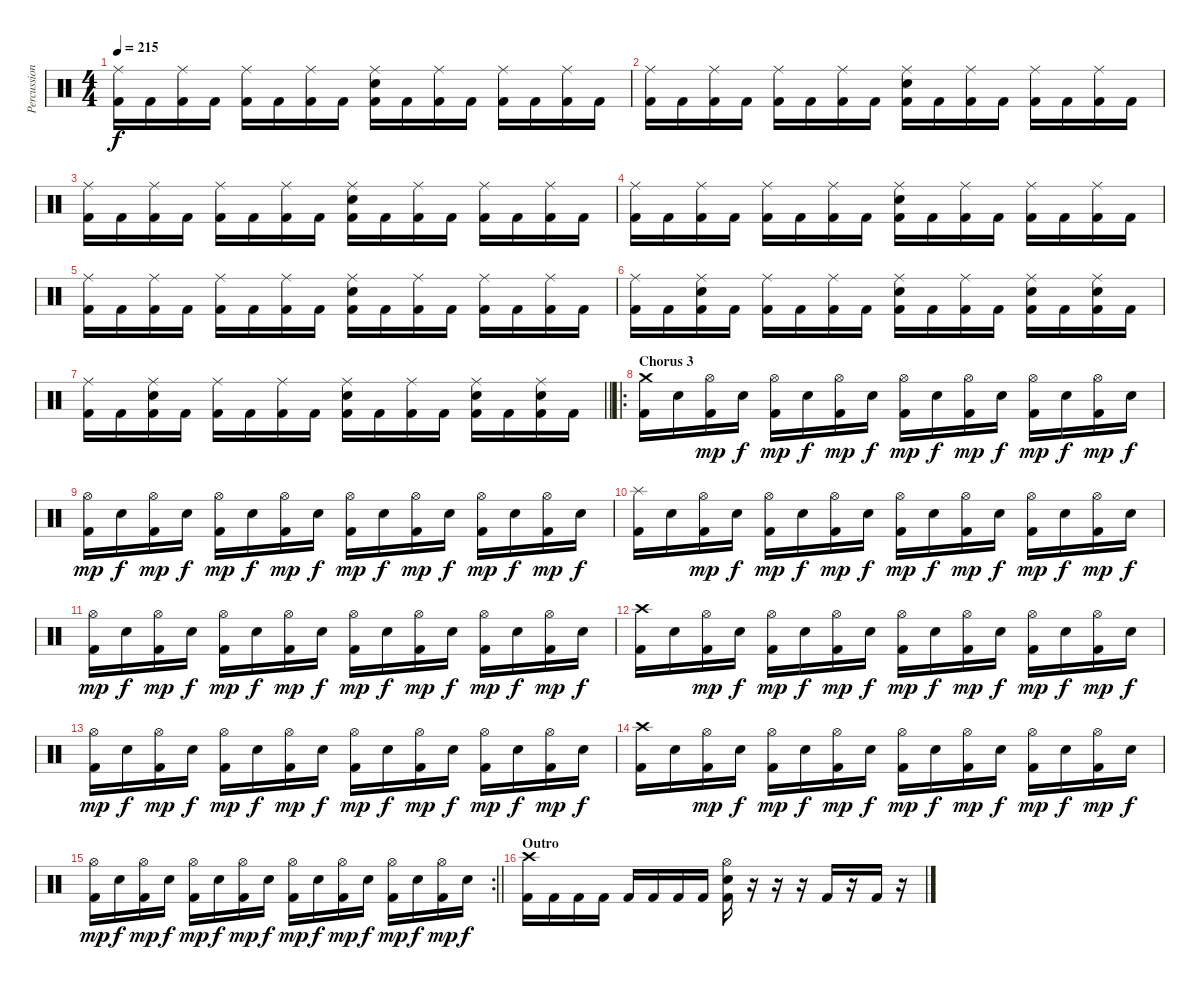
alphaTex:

\track ("Percussion" "Percussion") {instrument percussion}
\staff {score}
\articulation defaults
\ts (4 4)
\tempo 215
\clef neutral
\ks c
("Ride (middle)" "Kick (hit) 2").16{dy f} "Kick (hit) 2".16 ("Ride (middle)" "Kick (hit) 2").16 "Kick (hit) 2".16 ("Ride (middle)" "Kick (hit) 2").16 "Kick (hit) 2".16 ("Ride (middle)" "Kick (hit) 2").16 "Kick (hit) 2".16 ("Ride (middle)" "Electric Snare (hit)" "Kick (hit) 2").16 "Kick (hit) 2".16 ("Ride (middle)" "Kick (hit) 2").16 "Kick (hit) 2".16 ("Ride (middle)" "Kick (hit) 2").16 "Kick (hit) 2".16 ("Ride (middle)" "Kick (hit) 2").16 "Kick (hit) 2".16 |
("Ride (middle)" "Kick (hit) 2").16 "Kick (hit) 2".16 ("Ride (middle)" "Kick (hit) 2").16 "Kick (hit) 2".16 ("Ride (middle)" "Kick (hit) 2").16 "Kick (hit) 2".16 ("Ride (middle)" "Kick (hit) 2").16 "Kick (hit) 2".16 ("Ride (middle)" "Electric Snare (hit)" "Kick (hit) 2").16 "Kick (hit) 2".16 ("Ride (middle)" "Kick (hit) 2").16 "Kick (hit) 2".16 ("Ride (middle)" "Kick (hit) 2").16 "Kick (hit) 2".16 ("Ride (middle)" "Kick (hit) 2").16 "Kick (hit) 2".16 |
("Ride (middle)" "Kick (hit) 2").16 "Kick (hit) 2".16 ("Ride (middle)" "Kick (hit) 2").16 "Kick (hit) 2".16 ("Ride (middle)" "Kick (hit) 2").16 "Kick (hit) 2".16 ("Ride (middle)" "Kick (hit) 2").16 "Kick (hit) 2".16 ("Ride (middle)" "Electric Snare (hit)" "Kick (hit) 2").16 "Kick (hit) 2".16 ("Ride (middle)" "Kick (hit) 2").16 "Kick (hit) 2".16 ("Ride (middle)" "Kick (hit) 2").16 "Kick (hit) 2".16 ("Ride (middle)" "Kick (hit) 2").16 "Kick (hit) 2".16 |
("Ride (middle)" "Kick (hit) 2").16 "Kick (hit) 2".16 ("Ride (middle)" "Kick (hit) 2").16 "Kick (hit) 2".16 ("Ride (middle)" "Kick (hit) 2").16 "Kick (hit) 2".16 ("Ride (middle)" "Kick (hit) 2").16 "Kick (hit) 2".16 ("Ride (middle)" "Electric Snare (hit)" "Kick (hit) 2").16 "Kick (hit) 2".16 ("Ride (middle)" "Kick (hit) 2").16 "Kick (hit) 2".16 ("Ride (middle)" "Kick (hit) 2").16 "Kick (hit) 2".16 ("Ride (middle)" "Kick (hit) 2").16 "Kick (hit) 2".16 |
("Ride (middle)" "Kick (hit) 2").16 "Kick (hit) 2".16 ("Ride (middle)" "Kick (hit) 2").16 "Kick (hit) 2".16 ("Ride (middle)" "Kick (hit) 2").16 "Kick (hit) 2".16 ("Ride (middle)" "Kick (hit) 2").16 "Kick (hit) 2".16 ("Ride (middle)" "Electric Snare (hit)" "Kick (hit) 2").16 "Kick (hit) 2".16 ("Ride (middle)" "Kick (hit) 2").16 "Kick (hit) 2".16 ("Ride (middle)" "Kick (hit) 2").16 "Kick (hit) 2".16 ("Ride (middle)" "Kick (hit) 2").16 "Kick (hit) 2".16 |
("Ride (middle)" "Kick (hit) 2").16 "Kick (hit) 2".16 ("Ride (middle)" "Electric Snare (hit)" "Kick (hit) 2").16 "Kick (hit) 2".16 ("Ride (middle)" "Kick (hit) 2").16 "Kick (hit) 2".16 ("Ride (middle)" "Kick (hit) 2").16 "Kick (hit) 2".16 ("Ride (middle)" "Electric Snare (hit)" "Kick (hit) 2").16 "Kick (hit) 2".16 ("Ride (middle)" "Kick (hit) 2").16 "Kick (hit) 2".16 ("Ride (middle)" "Electric Snare (hit)" "Kick (hit) 2").16 "Kick (hit) 2".16 ("Ride (middle)" "Electric Snare (hit)" "Kick (hit) 2").16 "Kick (hit) 2".16 |
\barLineRight lightlight
("Ride (middle)" "Kick (hit) 2").16 "Kick (hit) 2".16 ("Ride (middle)" "Electric Snare (hit)" "Kick (hit) 2").16 "Kick (hit) 2".16 ("Ride (middle)" "Kick (hit) 2").16 "Kick (hit) 2".16 ("Ride (middle)" "Kick (hit) 2").16 "Kick (hit) 2".16 ("Ride (middle)" "Electric Snare (hit)" "Kick (hit) 2").16 "Kick (hit) 2".16 ("Ride (middle)" "Kick (hit) 2").16 "Kick (hit) 2".16 ("Ride (middle)" "Electric Snare (hit)" "Kick (hit) 2").16 "Kick (hit) 2".16 ("Ride (middle)" "Electric Snare (hit)" "Kick (hit) 2").16 "Kick (hit) 2".16 |
\ro
\section ("" "Chorus 3")
("Crash medium (hit)" "Kick (hit) 2").16 "Electric Snare (hit)".16 ("Hi-Hat (open)" "Kick (hit) 2").16{dy mp} "Electric Snare (hit)".16{dy f} ("Hi-Hat (open)" "Kick (hit) 2").16{dy mp} "Electric Snare (hit)".16{dy f} ("Hi-Hat (open)" "Kick (hit) 2").16{dy mp} "Electric Snare (hit)".16{dy f} ("Hi-Hat (open)" "Kick (hit) 2").16{dy mp} "Electric Snare (hit)".16{dy f} ("Hi-Hat (open)" "Kick (hit) 2").16{dy mp} "Electric Snare (hit)".16{dy f} ("Hi-Hat (open)" "Kick (hit) 2").16{dy mp} "Electric Snare (hit)".16{dy f} ("Hi-Hat (open)" "Kick (hit) 2").16{dy mp} "Electric Snare (hit)".16{dy f} |
("Hi-Hat (open)" "Kick (hit) 2").16{dy mp} "Electric Snare (hit)".16{dy f} ("Hi-Hat (open)" "Kick (hit) 2").16{dy mp} "Electric Snare (hit)".16{dy f} ("Hi-Hat (open)" "Kick (hit) 2").16{dy mp} "Electric Snare (hit)".16{dy f} ("Hi-Hat (open)" "Kick (hit) 2").16{dy mp} "Electric Snare (hit)".16{dy f} ("Hi-Hat (open)" "Kick (hit) 2").16{dy mp} "Electric Snare (hit)".16{dy f} ("Hi-Hat (open)" "Kick (hit) 2").16{dy mp} "Electric Snare (hit)".16{dy f} ("Hi-Hat (open)" "Kick (hit) 2").16{dy mp} "Electric Snare (hit)".16{dy f} ("Hi-Hat (open)" "Kick (hit) 2").16{dy mp} "Electric Snare (hit)".16{dy f} |
("Splash (hit)" "Kick (hit) 2").16 "Electric Snare (hit)".16 ("Hi-Hat (open)" "Kick (hit) 2").16{dy mp} "Electric Snare (hit)".16{dy f} ("Hi-Hat (open)" "Kick (hit) 2").16{dy mp} "Electric Snare (hit)".16{dy f} ("Hi-Hat (open)" "Kick (hit) 2").16{dy mp} "Electric Snare (hit)".16{dy f} ("Hi-Hat (open)" "Kick (hit) 2").16{dy mp} "Electric Snare (hit)".16{dy f} ("Hi-Hat (open)" "Kick (hit) 2").16{dy mp} "Electric Snare (hit)".16{dy f} ("Hi-Hat (open)" "Kick (hit) 2").16{dy mp} "Electric Snare (hit)".16{dy f} ("Hi-Hat (open)" "Kick (hit) 2").16{dy mp} "Electric Snare (hit)".16{dy f} |
("Hi-Hat (open)" "Kick (hit) 2").16{dy mp} "Electric Snare (hit)".16{dy f} ("Hi-Hat (open)" "Kick (hit) 2").16{dy mp} "Electric Snare (hit)".16{dy f} ("Hi-Hat (open)" "Kick (hit) 2").16{dy mp} "Electric Snare (hit)".16{dy f} ("Hi-Hat (open)" "Kick (hit) 2").16{dy mp} "Electric Snare (hit)".16{dy f} ("Hi-Hat (open)" "Kick (hit) 2").16{dy mp} "Electric Snare (hit)".16{dy f} ("Hi-Hat (open)" "Kick (hit) 2").16{dy mp} "Electric Snare (hit)".16{dy f} ("Hi-Hat (open)" "Kick (hit) 2").16{dy mp} "Electric Snare (hit)".16{dy f} ("Hi-Hat (open)" "Kick (hit) 2").16{dy mp} "Electric Snare (hit)".16{dy f} |
("Crash high (hit)" "Kick (hit) 2").16 "Electric Snare (hit)".16 ("Hi-Hat (open)" "Kick (hit) 2").16{dy mp} "Electric Snare (hit)".16{dy f} ("Hi-Hat (open)" "Kick (hit) 2").16{dy mp} "Electric Snare (hit)".16{dy f} ("Hi-Hat (open)" "Kick (hit) 2").16{dy mp} "Electric Snare (hit)".16{dy f} ("Hi-Hat (open)" "Kick (hit) 2").16{dy mp} "Electric Snare (hit)".16{dy f} ("Hi-Hat (open)" "Kick (hit) 2").16{dy mp} "Electric Snare (hit)".16{dy f} ("Hi-Hat (open)" "Kick (hit) 2").16{dy mp} "Electric Snare (hit)".16{dy f} ("Hi-Hat (open)" "Kick (hit) 2").16{dy mp} "Electric Snare (hit)".16{dy f} |
("Hi-Hat (open)" "Kick (hit) 2").16{dy mp} "Electric Snare (hit)".16{dy f} ("Hi-Hat (open)" "Kick (hit) 2").16{dy mp} "Electric Snare (hit)".16{dy f} ("Hi-Hat (open)" "Kick (hit) 2").16{dy mp} "Electric Snare (hit)".16{dy f} ("Hi-Hat (open)" "Kick (hit) 2").16{dy mp} "Electric Snare (hit)".16{dy f} ("Hi-Hat (open)" "Kick (hit) 2").16{dy mp} "Electric Snare (hit)".16{dy f} ("Hi-Hat (open)" "Kick (hit) 2").16{dy mp} "Electric Snare (hit)".16{dy f} ("Hi-Hat (open)" "Kick (hit) 2").16{dy mp} "Electric Snare (hit)".16{dy f} ("Hi-Hat (open)" "Kick (hit) 2").16{dy mp} "Electric Snare (hit)".16{dy f} |
("Crash high (hit)" "Kick (hit) 2").16 "Electric Snare (hit)".16 ("Hi-Hat (open)" "Kick (hit) 2").16{dy mp} "Electric Snare (hit)".16{dy f} ("Hi-Hat (open)" "Kick (hit) 2").16{dy mp} "Electric Snare (hit)".16{dy f} ("Hi-Hat (open)" "Kick (hit) 2").16{dy mp} "Electric Snare (hit)".16{dy f} ("Hi-Hat (open)" "Kick (hit) 2").16{dy mp} "Electric Snare (hit)".16{dy f} ("Hi-Hat (open)" "Kick (hit) 2").16{dy mp} "Electric Snare (hit)".16{dy f} ("Hi-Hat (open)" "Kick (hit) 2").16{dy mp} "Electric Snare (hit)".16{dy f} ("Hi-Hat (open)" "Kick (hit) 2").16{dy mp} "Electric Snare (hit)".16{dy f} |
\rc 2
\barLineRight lightlight
("Hi-Hat (open)" "Kick (hit) 2").16{dy mp} "Electric Snare (hit)".16{dy f} ("Hi-Hat (open)" "Kick (hit) 2").16{dy mp} "Electric Snare (hit)".16{dy f} ("Hi-Hat (open)" "Kick (hit) 2").16{dy mp} "Electric Snare (hit)".16{dy f} ("Hi-Hat (open)" "Kick (hit) 2").16{dy mp} "Electric Snare (hit)".16{dy f} ("Hi-Hat (open)" "Kick (hit) 2").16{dy mp} "Electric Snare (hit)".16{dy f} ("Hi-Hat (open)" "Kick (hit) 2").16{dy mp} "Electric Snare (hit)".16{dy f} ("Hi-Hat (open)" "Kick (hit) 2").16{dy mp} "Electric Snare (hit)".16{dy f} ("Hi-Hat (open)" "Kick (hit) 2").16{dy mp} "Electric Snare (hit)".16{dy f} |
\section ("" "Outro")
("Crash high (hit)" "Kick (hit) 2").16 "Kick (hit) 2".16 "Kick (hit) 2".16 "Kick (hit) 2".16 "Kick (hit) 2".16 "Kick (hit) 2".16 "Kick (hit) 2".16 "Kick (hit) 2".16 ("Hi-Hat (open)" "Electric Snare (hit)" "Kick (hit) 2").16 r.16 r.16 r.16 "Kick (hit) 2".16 r.16 "Kick (hit) 2".16 r.16
